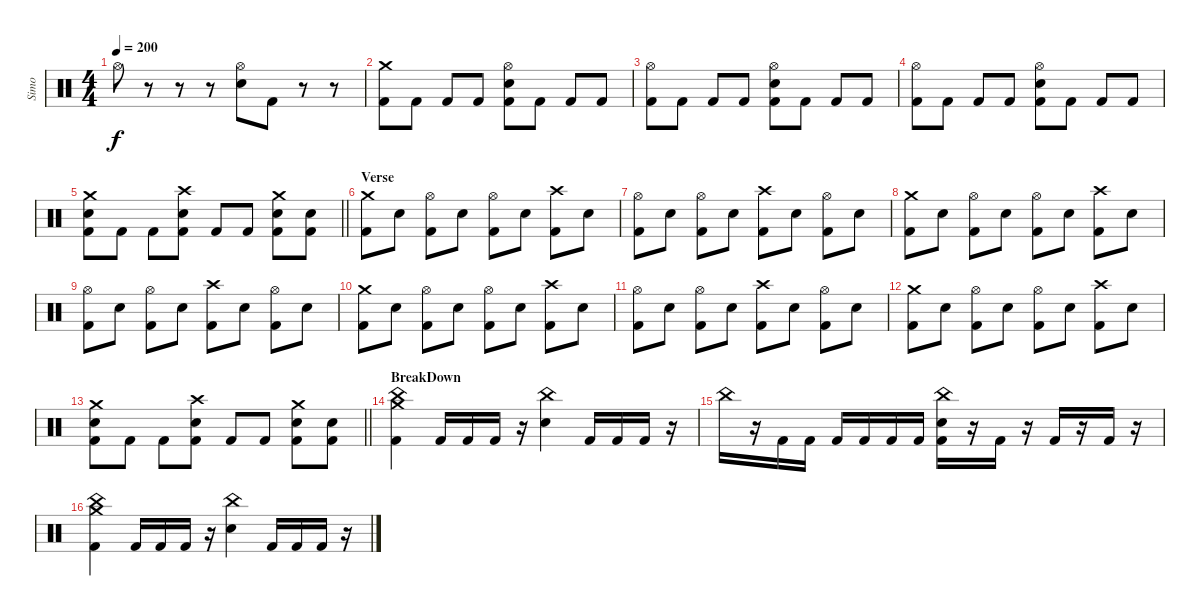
\track ("Simo" "Simo") {instrument percussion bank 121}
\staff {score}
\articulation defaults
\ts (4 4)
\tempo 200
\clef neutral
\ks c "Hi-Hat (open)".8{dy f}
r.8 r.8 r.8 ("Hi-Hat (open)" "Electric Snare (hit)").8 "Kick (hit) 2".8 r.8 r.8 |
("Kick (hit) 2" "Crash medium (hit)").8 "Kick (hit) 2".8 "Kick (hit) 2".8 "Kick (hit) 2".8 ("Kick (hit) 2" "Electric Snare (hit)" "Hi-Hat (open)").8 "Kick (hit) 2".8 "Kick (hit) 2".8 "Kick (hit) 2".8 |
("Kick (hit) 2" "Hi-Hat (open)").8 "Kick (hit) 2".8 "Kick (hit) 2".8 "Kick (hit) 2".8 ("Kick (hit) 2" "Electric Snare (hit)" "Hi-Hat (open)").8 "Kick (hit) 2".8 "Kick (hit) 2".8 "Kick (hit) 2".8 |
("Kick (hit) 2" "Hi-Hat (open)").8 "Kick (hit) 2".8 "Kick (hit) 2".8 "Kick (hit) 2".8 ("Kick (hit) 2" "Electric Snare (hit)" "Hi-Hat (open)").8 "Kick (hit) 2".8 "Kick (hit) 2".8 "Kick (hit) 2".8 |
\barLineRight lightlight
("Kick (hit) 2" "Electric Snare (hit)" "Crash medium (hit)").8 "Kick (hit) 2".8 "Kick (hit) 2".8 ("Kick (hit) 2" "Electric Snare (hit)" "Crash high (hit)").8 "Kick (hit) 2".8 "Kick (hit) 2".8 ("Kick (hit) 2" "Electric Snare (hit)" "Crash medium (hit)").8 ("Kick (hit) 2" "Electric Snare (hit)").8 |
\section ("" "Verse ")
("Kick (hit) 2" "Crash medium (hit)").8 "Electric Snare (hit)".8 ("Kick (hit) 2" "Hi-Hat (open)").8 "Electric Snare (hit)".8 ("Kick (hit) 2" "Hi-Hat (open)").8 "Electric Snare (hit)".8 ("Kick (hit) 2" "Crash high (hit)").8 "Electric Snare (hit)".8 |
("Kick (hit) 2" "Hi-Hat (open)").8 "Electric Snare (hit)".8 ("Kick (hit) 2" "Hi-Hat (open)").8 "Electric Snare (hit)".8 ("Kick (hit) 2" "Crash high (hit)").8 "Electric Snare (hit)".8 ("Kick (hit) 2" "Hi-Hat (open)").8 "Electric Snare (hit)".8 |
("Kick (hit) 2" "Crash medium (hit)").8 "Electric Snare (hit)".8 ("Kick (hit) 2" "Hi-Hat (open)").8 "Electric Snare (hit)".8 ("Kick (hit) 2" "Hi-Hat (open)").8 "Electric Snare (hit)".8 ("Kick (hit) 2" "Crash high (hit)").8 "Electric Snare (hit)".8 |
("Kick (hit) 2" "Hi-Hat (open)").8 "Electric Snare (hit)".8 ("Kick (hit) 2" "Hi-Hat (open)").8 "Electric Snare (hit)".8 ("Kick (hit) 2" "Crash high (hit)").8 "Electric Snare (hit)".8 ("Kick (hit) 2" "Hi-Hat (open)").8 "Electric Snare (hit)".8 |
("Kick (hit) 2" "Crash medium (hit)").8 "Electric Snare (hit)".8 ("Kick (hit) 2" "Hi-Hat (open)").8 "Electric Snare (hit)".8 ("Kick (hit) 2" "Hi-Hat (open)").8 "Electric Snare (hit)".8 ("Kick (hit) 2" "Crash high (hit)").8 "Electric Snare (hit)".8 |
("Kick (hit) 2" "Hi-Hat (open)").8 "Electric Snare (hit)".8 ("Kick (hit) 2" "Hi-Hat (open)").8 "Electric Snare (hit)".8 ("Kick (hit) 2" "Crash high (hit)").8 "Electric Snare (hit)".8 ("Kick (hit) 2" "Hi-Hat (open)").8 "Electric Snare (hit)".8 |
("Kick (hit) 2" "Crash medium (hit)").8 "Electric Snare (hit)".8 ("Kick (hit) 2" "Hi-Hat (open)").8 "Electric Snare (hit)".8 ("Kick (hit) 2" "Hi-Hat (open)").8 "Electric Snare (hit)".8 ("Kick (hit) 2" "Crash high (hit)").8 "Electric Snare (hit)".8 |
\barLineRight lightlight
("Kick (hit) 2" "Electric Snare (hit)" "Crash medium (hit)").8 "Kick (hit) 2".8 "Kick (hit) 2".8 ("Kick (hit) 2" "Electric Snare (hit)" "Crash high (hit)").8 "Kick (hit) 2".8 "Kick (hit) 2".8 ("Kick (hit) 2" "Electric Snare (hit)" "Crash medium (hit)").8 ("Kick (hit) 2" "Electric Snare (hit)").8 |
\section ("" "BreakDown")
("Kick (hit) 2" "China (hit)" "Crash medium (hit)").4 "Kick (hit) 2".16 "Kick (hit) 2".16 "Kick (hit) 2".16 r.16 ("Electric Snare (hit)" "China (hit)").4 "Kick (hit) 2".16 "Kick (hit) 2".16 "Kick (hit) 2".16 r.16 |
"China (hit)".16 r.16 "Kick (hit) 2".16 "Kick (hit) 2".16 "Kick (hit) 2".16 "Kick (hit) 2".16 "Kick (hit) 2".16 "Kick (hit) 2".16 ("Kick (hit) 2" "China (hit)" "Electric Snare (hit)").16 r.16 "Kick (hit) 2".16 r.16 "Kick (hit) 2".16 r.16 "Kick (hit) 2".16 r.16 |
("Kick (hit) 2" "China (hit)" "Crash medium (hit)").4 "Kick (hit) 2".16 "Kick (hit) 2".16 "Kick (hit) 2".16 r.16 ("Electric Snare (hit)" "China (hit)").4 "Kick (hit) 2".16 "Kick (hit) 2".16 "Kick (hit) 2".16 r.16
